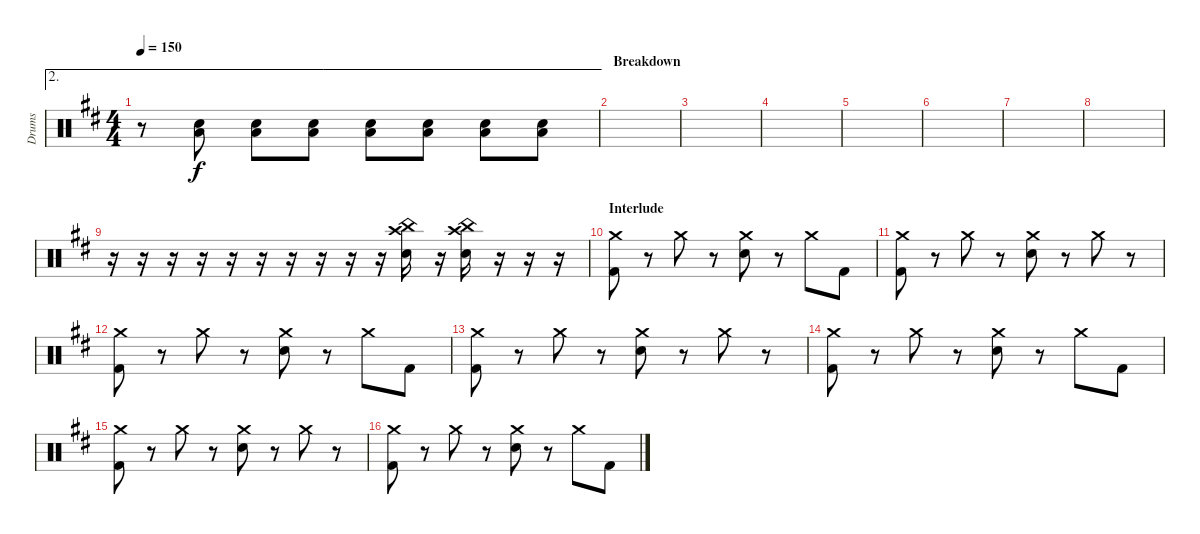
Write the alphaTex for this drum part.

\track ("Drums" "Drums") {instrument percussion}
\staff {score}
\articulation defaults
\ae 2
\ts (4 4)
\tempo 150
\clef neutral
\ks d
r.8{dy f} ("Low Tom (hit)" "Snare (hit) 2").8 ("Low Tom (hit)" "Snare (hit) 2").8 ("Low Tom (hit)" "Snare (hit) 2").8 ("Low Tom (hit)" "Snare (hit) 2").8 ("Low Tom (hit)" "Snare (hit) 2").8 ("Low Tom (hit)" "Snare (hit) 2").8 ("Low Tom (hit)" "Snare (hit) 2").8 |
\section ("" "Breakdown")
|
|
|
|
|
|
|
r.16 r.16 r.16 r.16 r.16 r.16 r.16 r.16 r.16 r.16 ("Crash high (hit)" "China (hit)" "Snare (hit) 2").16 r.16 ("Crash high (hit)" "China (hit)" "Snare (hit) 2").16 r.16 r.16 r.16 |
\section ("" "Interlude")
("Crash medium (hit)" "Kick (hit) 2").8 r.8 "Crash medium (hit)".8 r.8 ("Crash medium (hit)" "Snare (hit) 2").8 r.8 "Crash medium (hit)".8 "Kick (hit) 2".8 |
("Crash medium (hit)" "Kick (hit) 2").8 r.8 "Crash medium (hit)".8 r.8 ("Crash medium (hit)" "Snare (hit) 2").8 r.8 "Crash medium (hit)".8 r.8 |
("Crash medium (hit)" "Kick (hit) 2").8 r.8 "Crash medium (hit)".8 r.8 ("Crash medium (hit)" "Snare (hit) 2").8 r.8 "Crash medium (hit)".8 "Kick (hit) 2".8 |
("Crash medium (hit)" "Kick (hit) 2").8 r.8 "Crash medium (hit)".8 r.8 ("Crash medium (hit)" "Snare (hit) 2").8 r.8 "Crash medium (hit)".8 r.8 |
("Crash medium (hit)" "Kick (hit) 2").8 r.8 "Crash medium (hit)".8 r.8 ("Crash medium (hit)" "Snare (hit) 2").8 r.8 "Crash medium (hit)".8 "Kick (hit) 2".8 |
("Crash medium (hit)" "Kick (hit) 2").8 r.8 "Crash medium (hit)".8 r.8 ("Crash medium (hit)" "Snare (hit) 2").8 r.8 "Crash medium (hit)".8 r.8 |
("Crash medium (hit)" "Kick (hit) 2").8 r.8 "Crash medium (hit)".8 r.8 ("Crash medium (hit)" "Snare (hit) 2").8 r.8 "Crash medium (hit)".8 "Kick (hit) 2".8
